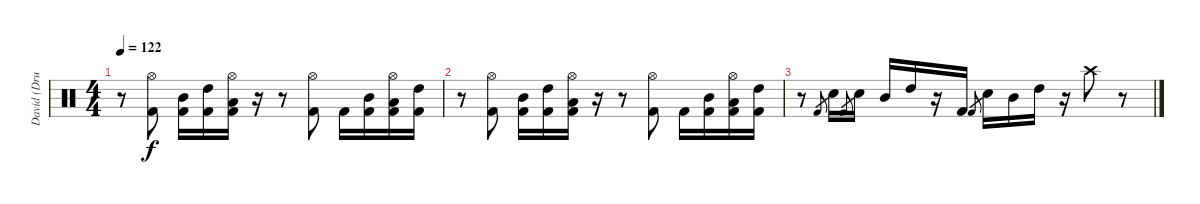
\track ("David (Drums)" "David (Dru") {instrument percussion}
\staff {score}
\articulation defaults
\ts (4 4)
\tempo 122
\clef neutral
\ks c
r.8{dy f} ("Hi-Hat (open)" "Kick (hit) 2").8 ("Mid Tom (hit)" "Kick (hit) 2").16 ("High Tom (hit)" "Kick (hit) 2").16 ("Hi-Hat (open)" "Low Tom (hit)" "Kick (hit) 2").16 r.16 r.8 ("Hi-Hat (open)" "Kick (hit) 2").8 "Kick (hit) 2".16 ("Mid Tom (hit)" "Kick (hit) 2").16 ("Hi-Hat (open)" "Low Tom (hit)" "Kick (hit) 2").16 ("High Tom (hit)" "Kick (hit) 2").16 |
r.8 ("Hi-Hat (open)" "Kick (hit) 2").8 ("Mid Tom (hit)" "Kick (hit) 2").16 ("High Tom (hit)" "Kick (hit) 2").16 ("Hi-Hat (open)" "Low Tom (hit)" "Kick (hit) 2").16 r.16 r.8 ("Hi-Hat (open)" "Kick (hit) 2").8 "Kick (hit) 2".16 ("Mid Tom (hit)" "Kick (hit) 2").16 ("Hi-Hat (open)" "Low Tom (hit)" "Kick (hit) 2").16 ("High Tom (hit)" "Kick (hit) 2").16 |
r.8 "Kick (hit) 2".8{gr} "Electric Snare (hit)".16 "Kick (hit) 2".8{gr} "Electric Snare (hit)".16 "Mid Tom (hit)".16 "High Tom (hit)".16 r.16 "Kick (hit) 2".16 "Kick (hit) 2".8{gr} "Electric Snare (hit)".16 "Mid Tom (hit)".16 "High Tom (hit)".16 r.16 "Crash high (hit)".8 r.8
